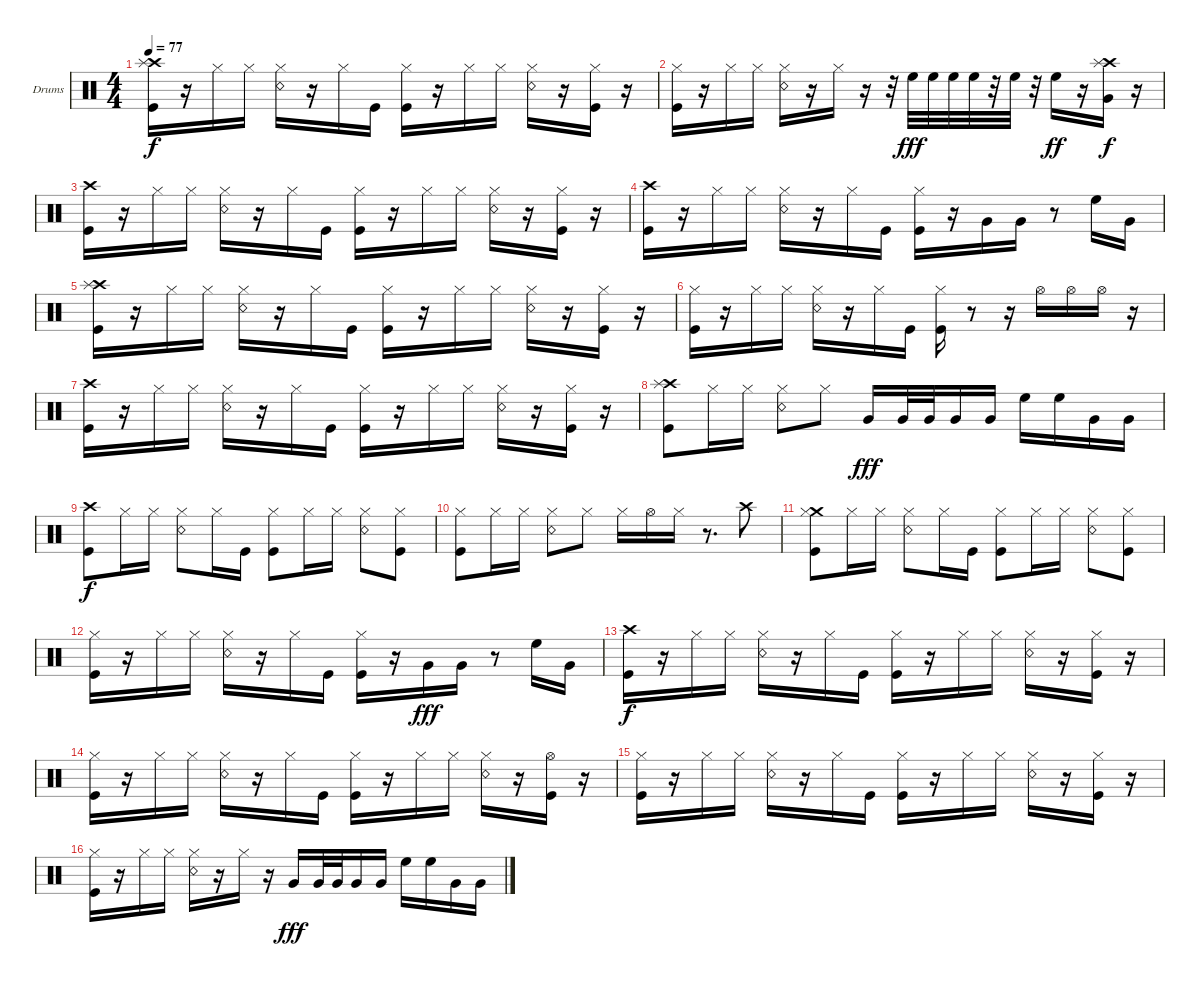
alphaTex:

\defaultSystemsLayout 4
\bracketExtendMode groupsimilarinstruments
\firstSystemTrackNameOrientation horizontal
\otherSystemsTrackNameOrientation horizontal
\track ("Drumkit" "Drums") {instrument percussion}
\staff {score}
\articulation defaults
\ts (4 4)
\tempo 77
\clef neutral
\scale
0.333333
\ks c
("Kick (hit)" "Crash high (hit)" "Splash (hit)").16{dy f} r.16 "Hi-Hat (closed)".16 "Hi-Hat (closed)".16 ("Snare (rim shot)" "Hi-Hat (closed)").16 r.16 "Hi-Hat (closed)".16 "Kick (hit)".16 ("Kick (hit)" "Hi-Hat (closed)").16 r.16 "Hi-Hat (closed)".16 "Hi-Hat (closed)".16 ("Snare (rim shot)" "Hi-Hat (closed)").16 r.16 ("Kick (hit)" "Hi-Hat (closed)").16 r.16 |
\scale
0.333333 ("Kick (hit)" "Hi-Hat (closed)").16 r.16 "Hi-Hat (closed)".16 "Hi-Hat (closed)".16 ("Snare (rim shot)" "Hi-Hat (closed)").16 r.16 "Hi-Hat (closed)".16 r.16 r.32 "High Floor Tom (hit)".32{dy fff} "High Floor Tom (hit)".32 "High Floor Tom (hit)".32 "High Floor Tom (hit)".32 r.32 "High Floor Tom (hit)".32 r.32 "High Floor Tom (hit)".16{dy ff} r.16 ("Very Low Tom (hit)" "Crash high (hit)" "Splash (hit)").16{dy f} r.16 |
\scale
0.333333 ("Kick (hit)" "Crash high (hit)").16 r.16 "Hi-Hat (closed)".16 "Hi-Hat (closed)".16 ("Snare (rim shot)" "Hi-Hat (closed)").16 r.16 "Hi-Hat (closed)".16 "Kick (hit)".16 ("Kick (hit)" "Hi-Hat (closed)").16 r.16 "Hi-Hat (closed)".16 "Hi-Hat (closed)".16 ("Snare (rim shot)" "Hi-Hat (closed)").16 r.16 ("Kick (hit)" "Hi-Hat (closed)").16 r.16 |
\scale
0.333333 ("Kick (hit)" "Crash high (hit)").16 r.16 "Hi-Hat (closed)".16 "Hi-Hat (closed)".16 ("Snare (rim shot)" "Hi-Hat (closed)").16 r.16 "Hi-Hat (closed)".16 "Kick (hit)".16 ("Kick (hit)" "Hi-Hat (closed)").16 r.16 "Very Low Tom (hit)".16 "Very Low Tom (hit)".16 r.8 "High Floor Tom (hit)".16 "Very Low Tom (hit)".16 |
\scale
0.333333 ("Kick (hit)" "Crash high (hit)" "Splash (hit)").16 r.16 "Hi-Hat (closed)".16 "Hi-Hat (closed)".16 ("Snare (rim shot)" "Hi-Hat (closed)").16 r.16 "Hi-Hat (closed)".16 "Kick (hit)".16 ("Kick (hit)" "Hi-Hat (closed)").16 r.16 "Hi-Hat (closed)".16 "Hi-Hat (closed)".16 ("Snare (rim shot)" "Hi-Hat (closed)").16 r.16 ("Kick (hit)" "Hi-Hat (closed)").16 r.16 |
\scale
0.333333 ("Kick (hit)" "Hi-Hat (closed)").16 r.16 "Hi-Hat (closed)".16 "Hi-Hat (closed)".16 ("Snare (rim shot)" "Hi-Hat (closed)").16 r.16 "Hi-Hat (closed)".16 "Kick (hit)".16 ("Kick (hit)" "Hi-Hat (closed)").16 r.8 r.16 "Hi-Hat (open)".16 "Hi-Hat (open)".16 "Hi-Hat (open)".16 r.16 |
\scale
0.333333 ("Kick (hit)" "Crash high (hit)").16 r.16 "Hi-Hat (closed)".16 "Hi-Hat (closed)".16 ("Snare (rim shot)" "Hi-Hat (closed)").16 r.16 "Hi-Hat (closed)".16 "Kick (hit)".16 ("Kick (hit)" "Hi-Hat (closed)").16 r.16 "Hi-Hat (closed)".16 "Hi-Hat (closed)".16 ("Snare (rim shot)" "Hi-Hat (closed)").16 r.16 ("Kick (hit)" "Hi-Hat (closed)").16 r.16 |
\scale
0.333333 ("Kick (hit)" "Crash high (hit)" "Splash (hit)").8 "Hi-Hat (closed)".16 "Hi-Hat (closed)".16 ("Snare (rim shot)" "Hi-Hat (closed)").8 "Hi-Hat (closed)".8 "Very Low Tom (hit)".16{dy fff} "Very Low Tom (hit)".32 "Very Low Tom (hit)".32 "Very Low Tom (hit)".16 "Very Low Tom (hit)".16 "High Floor Tom (hit)".16 "High Floor Tom (hit)".16 "Very Low Tom (hit)".16 "Very Low Tom (hit)".16 |
\scale
0.333333 ("Kick (hit)" "Crash high (hit)").8{dy f} "Hi-Hat (closed)".16 "Hi-Hat (closed)".16 ("Snare (rim shot)" "Hi-Hat (closed)").8 "Hi-Hat (closed)".16 "Kick (hit)".16 ("Kick (hit)" "Hi-Hat (closed)").8 "Hi-Hat (closed)".16 "Hi-Hat (closed)".16 ("Snare (rim shot)" "Hi-Hat (closed)").8 ("Kick (hit)" "Hi-Hat (closed)").8 |
\scale
0.333333 ("Kick (hit)" "Hi-Hat (closed)").8 "Hi-Hat (closed)".16 "Hi-Hat (closed)".16 ("Snare (rim shot)" "Hi-Hat (closed)").8 "Hi-Hat (closed)".8 "Hi-Hat (closed)".16 "Hi-Hat (open)".16 "Hi-Hat (closed)".16 r.8{d} "Crash high (hit)".8 |
\scale
0.333333 ("Crash medium (hit)" "Hi-Hat (closed)" "Kick (hit)").8 "Hi-Hat (closed)".16 "Hi-Hat (closed)".16 ("Snare (rim shot)" "Hi-Hat (closed)").8 "Hi-Hat (closed)".16 "Kick (hit)".16 ("Kick (hit)" "Hi-Hat (closed)").8 "Hi-Hat (closed)".16 "Hi-Hat (closed)".16 ("Snare (rim shot)" "Hi-Hat (closed)").8 ("Kick (hit)" "Hi-Hat (closed)").8 |
\scale
0.333333 ("Kick (hit)" "Hi-Hat (closed)").16 r.16 "Hi-Hat (closed)".16 "Hi-Hat (closed)".16 ("Snare (rim shot)" "Hi-Hat (closed)").16 r.16 "Hi-Hat (closed)".16 "Kick (hit)".16 ("Kick (hit)" "Hi-Hat (closed)").16 r.16 "Very Low Tom (hit)".16{dy fff} "Very Low Tom (hit)".16 r.8 "High Floor Tom (hit)".16 "Very Low Tom (hit)".16 |
\scale
0.333333 ("Kick (hit)" "Crash high (hit)").16{dy f} r.16 "Hi-Hat (closed)".16 "Hi-Hat (closed)".16 ("Snare (rim shot)" "Hi-Hat (closed)").16 r.16 "Hi-Hat (closed)".16 "Kick (hit)".16 ("Kick (hit)" "Hi-Hat (closed)").16 r.16 "Hi-Hat (closed)".16 "Hi-Hat (closed)".16 ("Snare (rim shot)" "Hi-Hat (closed)").16 r.16 ("Kick (hit)" "Hi-Hat (closed)").16 r.16 |
\scale
0.333333 ("Kick (hit)" "Hi-Hat (closed)").16 r.16 "Hi-Hat (closed)".16 "Hi-Hat (closed)".16 ("Snare (rim shot)" "Hi-Hat (closed)").16 r.16 "Hi-Hat (closed)".16 "Kick (hit)".16 ("Kick (hit)" "Hi-Hat (closed)").16 r.16 "Hi-Hat (closed)".16 "Hi-Hat (closed)".16 ("Snare (rim shot)" "Hi-Hat (closed)").16 r.16 ("Kick (hit)" "Hi-Hat (open)").16 r.16 |
\scale
0.333333 ("Kick (hit)" "Hi-Hat (closed)").16 r.16 "Hi-Hat (closed)".16 "Hi-Hat (closed)".16 ("Snare (rim shot)" "Hi-Hat (closed)").16 r.16 "Hi-Hat (closed)".16 "Kick (hit)".16 ("Kick (hit)" "Hi-Hat (closed)").16 r.16 "Hi-Hat (closed)".16 "Hi-Hat (closed)".16 ("Snare (rim shot)" "Hi-Hat (closed)").16 r.16 ("Kick (hit)" "Hi-Hat (closed)").16 r.16 |
\scale
0.333333 ("Kick (hit)" "Hi-Hat (closed)").16 r.16 "Hi-Hat (closed)".16 "Hi-Hat (closed)".16 ("Snare (rim shot)" "Hi-Hat (closed)").16 r.16 "Hi-Hat (closed)".16 r.16 "Very Low Tom (hit)".16{dy fff} "Very Low Tom (hit)".32 "Very Low Tom (hit)".32 "Very Low Tom (hit)".16 "Very Low Tom (hit)".16 "High Floor Tom (hit)".16 "High Floor Tom (hit)".16 "Very Low Tom (hit)".16 "Very Low Tom (hit)".16
